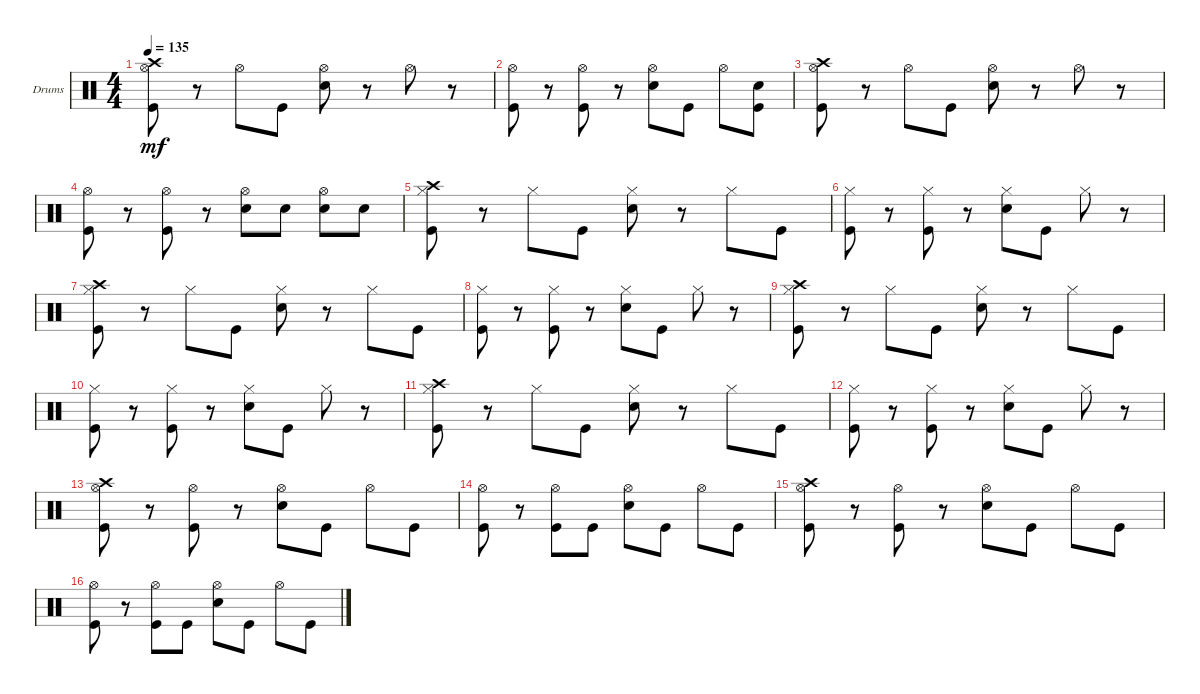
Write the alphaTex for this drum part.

\defaultSystemsLayout 4
\bracketExtendMode groupsimilarinstruments
\firstSystemTrackNameOrientation horizontal
\otherSystemsTrackNameOrientation horizontal
\track ("Drumkit" "Drums") {instrument percussion}
\staff {score}
\articulation defaults
\ts (4 4)
\tempo 135
\clef neutral
\scale
0.333333
\ks c
("Hi-Hat (open)" "Crash high (hit)" "Kick (hit)").8{dy mf} r.8 "Hi-Hat (open)".8 "Kick (hit)".8 ("Hi-Hat (open)" "Snare (hit) 2").8 r.8 "Hi-Hat (open)".8 r.8 |
\scale
0.333333 ("Hi-Hat (open)" "Kick (hit)").8 r.8 ("Hi-Hat (open)" "Kick (hit)").8 r.8 ("Hi-Hat (open)" "Snare (hit) 2").8 "Kick (hit)".8 "Hi-Hat (open)".8 ("Kick (hit)" "Snare (hit) 2").8 |
("Hi-Hat (open)" "Crash high (hit)" "Kick (hit)").8 r.8 "Hi-Hat (open)".8 "Kick (hit)".8 ("Hi-Hat (open)" "Snare (hit) 2").8 r.8 "Hi-Hat (open)".8 r.8 |
("Hi-Hat (open)" "Kick (hit)").8 r.8 ("Hi-Hat (open)" "Kick (hit)").8 r.8 ("Hi-Hat (open)" "Snare (hit) 2").8 "Snare (hit) 2".8 ("Snare (hit) 2" "Hi-Hat (open)").8 "Snare (hit) 2".8 |
("Kick (hit)" "Crash high (hit)" "Hi-Hat (closed)").8 r.8 "Hi-Hat (closed)".8 "Kick (hit)".8 ("Snare (hit) 2" "Hi-Hat (closed)").8 r.8 "Hi-Hat (closed)".8 "Kick (hit)".8 |
("Kick (hit)" "Hi-Hat (closed)").8 r.8 ("Kick (hit)" "Hi-Hat (closed)").8 r.8 ("Snare (hit) 2" "Hi-Hat (closed)").8 "Kick (hit)".8 "Hi-Hat (closed)".8 r.8 |
("Kick (hit)" "Crash high (hit)" "Hi-Hat (closed)").8 r.8 "Hi-Hat (closed)".8 "Kick (hit)".8 ("Snare (hit) 2" "Hi-Hat (closed)").8 r.8 "Hi-Hat (closed)".8 "Kick (hit)".8 |
("Kick (hit)" "Hi-Hat (closed)").8 r.8 ("Kick (hit)" "Hi-Hat (closed)").8 r.8 ("Snare (hit) 2" "Hi-Hat (closed)").8 "Kick (hit)".8 "Hi-Hat (closed)".8 r.8 |
("Kick (hit)" "Crash high (hit)" "Hi-Hat (closed)").8 r.8 "Hi-Hat (closed)".8 "Kick (hit)".8 ("Snare (hit) 2" "Hi-Hat (closed)").8 r.8 "Hi-Hat (closed)".8 "Kick (hit)".8 |
("Kick (hit)" "Hi-Hat (closed)").8 r.8 ("Kick (hit)" "Hi-Hat (closed)").8 r.8 ("Snare (hit) 2" "Hi-Hat (closed)").8 "Kick (hit)".8 "Hi-Hat (closed)".8 r.8 |
("Kick (hit)" "Crash high (hit)" "Hi-Hat (closed)").8 r.8 "Hi-Hat (closed)".8 "Kick (hit)".8 ("Snare (hit) 2" "Hi-Hat (closed)").8 r.8 "Hi-Hat (closed)".8 "Kick (hit)".8 |
("Kick (hit)" "Hi-Hat (closed)").8 r.8 ("Kick (hit)" "Hi-Hat (closed)").8 r.8 ("Snare (hit) 2" "Hi-Hat (closed)").8 "Kick (hit)".8 "Hi-Hat (closed)".8 r.8 |
("Crash high (hit)" "Kick (hit)" "Hi-Hat (open)").8 r.8 ("Hi-Hat (open)" "Kick (hit)").8 r.8 ("Hi-Hat (open)" "Snare (hit) 2").8 "Kick (hit)".8 "Hi-Hat (open)".8 "Kick (hit)".8 |
("Kick (hit)" "Hi-Hat (open)").8 r.8 ("Kick (hit)" "Hi-Hat (open)").8 "Kick (hit)".8 ("Snare (hit) 2" "Hi-Hat (open)").8 "Kick (hit)".8 "Hi-Hat (open)".8 "Kick (hit)".8 |
("Crash high (hit)" "Kick (hit)" "Hi-Hat (open)").8 r.8 ("Hi-Hat (open)" "Kick (hit)").8 r.8 ("Hi-Hat (open)" "Snare (hit) 2").8 "Kick (hit)".8 "Hi-Hat (open)".8 "Kick (hit)".8 |
("Kick (hit)" "Hi-Hat (open)").8 r.8 ("Kick (hit)" "Hi-Hat (open)").8 "Kick (hit)".8 ("Snare (hit) 2" "Hi-Hat (open)").8 "Kick (hit)".8 "Hi-Hat (open)".8 "Kick (hit)".8
